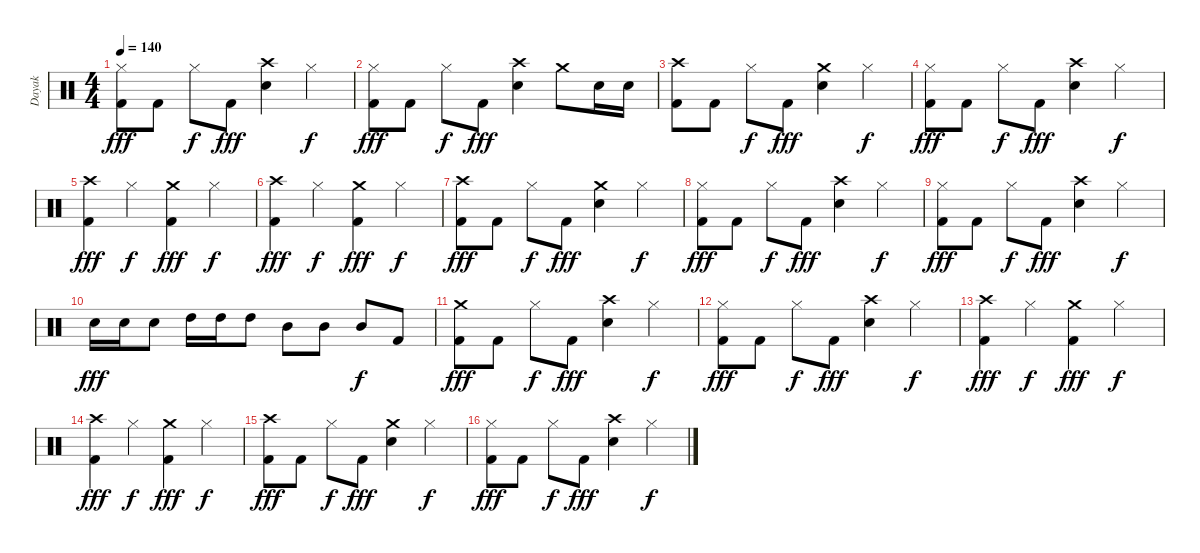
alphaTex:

\track ("Dayak" "Dayak") {instrument percussion}
\staff {score}
\articulation defaults
\ts (4 4)
\tempo 140
\clef neutral
\ks c
("Hi-Hat (closed)" "Kick (hit) 2").8{dy fff} "Kick (hit) 2".8 "Hi-Hat (closed)".8{dy f} "Kick (hit) 2".8{dy fff} ("Crash high (hit)" "Snare (hit) 2").4 "Hi-Hat (closed)".4{dy f} |
("Hi-Hat (closed)" "Kick (hit) 2").8{dy fff} "Kick (hit) 2".8 "Hi-Hat (closed)".8{dy f} "Kick (hit) 2".8{dy fff} ("Crash high (hit)" "Snare (hit) 2").4 "Crash medium (hit)".8 "Snare (hit) 2".16 "Snare (hit) 2".16 |
("Crash high (hit)" "Kick (hit) 2").8 "Kick (hit) 2".8 "Hi-Hat (closed)".8{dy f} "Kick (hit) 2".8{dy fff} ("Crash medium (hit)" "Snare (hit) 2").4 "Hi-Hat (closed)".4{dy f} |
("Hi-Hat (closed)" "Kick (hit) 2").8{dy fff} "Kick (hit) 2".8 "Hi-Hat (closed)".8{dy f} "Kick (hit) 2".8{dy fff} ("Crash high (hit)" "Snare (hit) 2").4 "Hi-Hat (closed)".4{dy f} |
("Crash high (hit)" "Kick (hit) 2").4{dy fff} "Hi-Hat (closed)".4{dy f} ("Crash medium (hit)" "Kick (hit) 2").4{dy fff} "Hi-Hat (closed)".4{dy f} |
("Crash high (hit)" "Kick (hit) 2").4{dy fff} "Hi-Hat (closed)".4{dy f} ("Crash medium (hit)" "Kick (hit) 2").4{dy fff} "Hi-Hat (closed)".4{dy f} |
("Crash high (hit)" "Kick (hit) 2").8{dy fff} "Kick (hit) 2".8 "Hi-Hat (closed)".8{dy f} "Kick (hit) 2".8{dy fff} ("Crash medium (hit)" "Snare (hit) 2").4 "Hi-Hat (closed)".4{dy f} |
("Hi-Hat (closed)" "Kick (hit) 2").8{dy fff} "Kick (hit) 2".8 "Hi-Hat (closed)".8{dy f} "Kick (hit) 2".8{dy fff} ("Crash high (hit)" "Snare (hit) 2").4 "Hi-Hat (closed)".4{dy f} |
("Hi-Hat (closed)" "Kick (hit) 2").8{dy fff} "Kick (hit) 2".8 "Hi-Hat (closed)".8{dy f} "Kick (hit) 2".8{dy fff} ("Crash high (hit)" "Snare (hit) 2").4 "Hi-Hat (closed)".4{dy f} |
"Snare (hit) 2".16{dy fff} "Snare (hit) 2".16 "Snare (hit) 2".8 "High Tom (hit)".16 "High Tom (hit)".16 "High Tom (hit)".8 "Mid Tom (hit)".8 "Mid Tom (hit)".8 "Mid Tom (hit)".8{dy f} "Kick (hit) 2".8 |
("Crash medium (hit)" "Kick (hit) 2").8{dy fff} "Kick (hit) 2".8 "Hi-Hat (closed)".8{dy f} "Kick (hit) 2".8{dy fff} ("Crash high (hit)" "Snare (hit) 2").4 "Hi-Hat (closed)".4{dy f} |
("Hi-Hat (closed)" "Kick (hit) 2").8{dy fff} "Kick (hit) 2".8 "Hi-Hat (closed)".8{dy f} "Kick (hit) 2".8{dy fff} ("Crash high (hit)" "Snare (hit) 2").4 "Hi-Hat (closed)".4{dy f} |
("Crash high (hit)" "Kick (hit) 2").4{dy fff} "Hi-Hat (closed)".4{dy f} ("Crash medium (hit)" "Kick (hit) 2").4{dy fff} "Hi-Hat (closed)".4{dy f} |
("Crash high (hit)" "Kick (hit) 2").4{dy fff} "Hi-Hat (closed)".4{dy f} ("Crash medium (hit)" "Kick (hit) 2").4{dy fff} "Hi-Hat (closed)".4{dy f} |
("Crash high (hit)" "Kick (hit) 2").8{dy fff} "Kick (hit) 2".8 "Hi-Hat (closed)".8{dy f} "Kick (hit) 2".8{dy fff} ("Crash medium (hit)" "Snare (hit) 2").4 "Hi-Hat (closed)".4{dy f} |
("Hi-Hat (closed)" "Kick (hit) 2").8{dy fff} "Kick (hit) 2".8 "Hi-Hat (closed)".8{dy f} "Kick (hit) 2".8{dy fff} ("Crash high (hit)" "Snare (hit) 2").4 "Hi-Hat (closed)".4{dy f}
